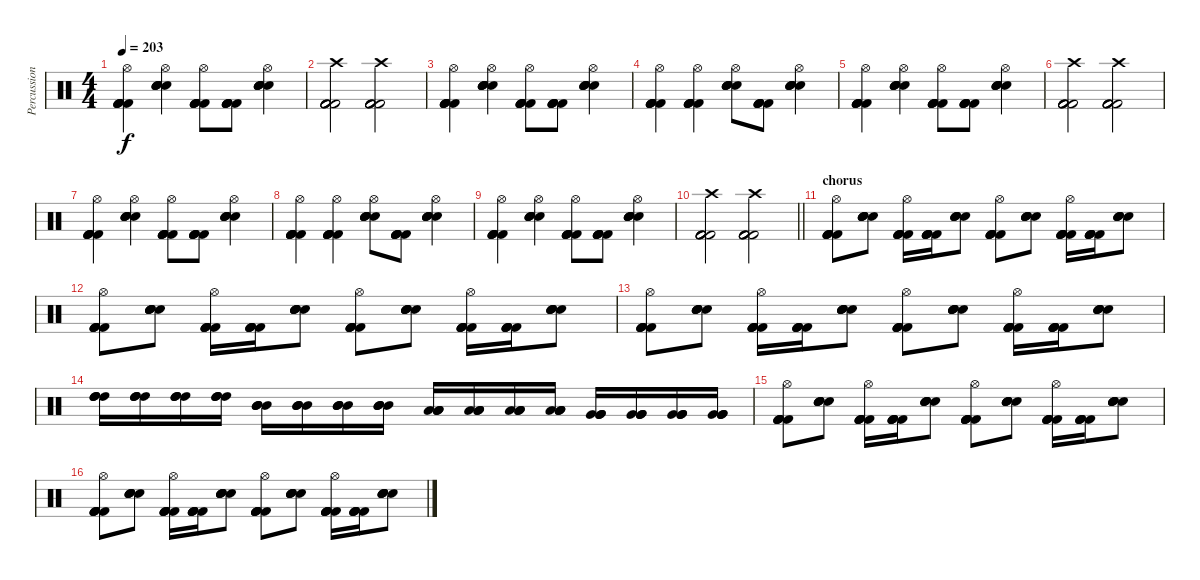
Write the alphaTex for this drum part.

\track ("Percussion" "Percussion") {instrument percussion}
\staff {score}
\articulation defaults
\ts (4 4)
\tempo 203
\clef neutral
\ks c
("Kick (hit) 2" "Kick (hit) 2" "Kick (hit) 2" "Kick (hit) 2" "Kick (hit) 2" "Hi-Hat (open)").4{dy f} ("Electric Snare (hit)" "Electric Snare (hit)" "Electric Snare (hit)" "Electric Snare (hit)" "Electric Snare (hit)" "Hi-Hat (open)").4 ("Kick (hit) 2" "Kick (hit) 2" "Kick (hit) 2" "Kick (hit) 2" "Kick (hit) 2" "Hi-Hat (open)").8 ("Kick (hit) 2" "Kick (hit) 2" "Kick (hit) 2" "Kick (hit) 2" "Kick (hit) 2").8 ("Electric Snare (hit)" "Electric Snare (hit)" "Electric Snare (hit)" "Electric Snare (hit)" "Electric Snare (hit)" "Hi-Hat (open)").4 |
("Kick (hit) 2" "Kick (hit) 2" "Kick (hit) 2" "Kick (hit) 2" "Kick (hit) 2" "Crash high (hit)").2 ("Kick (hit) 2" "Kick (hit) 2" "Kick (hit) 2" "Kick (hit) 2" "Kick (hit) 2" "Crash high (hit)").2 |
("Kick (hit) 2" "Kick (hit) 2" "Kick (hit) 2" "Kick (hit) 2" "Kick (hit) 2" "Hi-Hat (open)").4 ("Electric Snare (hit)" "Electric Snare (hit)" "Electric Snare (hit)" "Electric Snare (hit)" "Electric Snare (hit)" "Hi-Hat (open)").4 ("Kick (hit) 2" "Kick (hit) 2" "Kick (hit) 2" "Kick (hit) 2" "Kick (hit) 2" "Hi-Hat (open)").8 ("Kick (hit) 2" "Kick (hit) 2" "Kick (hit) 2" "Kick (hit) 2" "Kick (hit) 2").8 ("Electric Snare (hit)" "Electric Snare (hit)" "Electric Snare (hit)" "Electric Snare (hit)" "Electric Snare (hit)" "Hi-Hat (open)").4 |
("Kick (hit) 2" "Kick (hit) 2" "Kick (hit) 2" "Kick (hit) 2" "Kick (hit) 2" "Hi-Hat (open)").4 ("Kick (hit) 2" "Kick (hit) 2" "Kick (hit) 2" "Kick (hit) 2" "Kick (hit) 2" "Hi-Hat (open)").4 ("Electric Snare (hit)" "Electric Snare (hit)" "Electric Snare (hit)" "Electric Snare (hit)" "Electric Snare (hit)" "Hi-Hat (open)").8 ("Kick (hit) 2" "Kick (hit) 2" "Kick (hit) 2" "Kick (hit) 2" "Kick (hit) 2").8 ("Electric Snare (hit)" "Electric Snare (hit)" "Electric Snare (hit)" "Electric Snare (hit)" "Electric Snare (hit)" "Hi-Hat (open)").4 |
("Kick (hit) 2" "Kick (hit) 2" "Kick (hit) 2" "Kick (hit) 2" "Kick (hit) 2" "Hi-Hat (open)").4 ("Electric Snare (hit)" "Electric Snare (hit)" "Electric Snare (hit)" "Electric Snare (hit)" "Electric Snare (hit)" "Hi-Hat (open)").4 ("Kick (hit) 2" "Kick (hit) 2" "Kick (hit) 2" "Kick (hit) 2" "Kick (hit) 2" "Hi-Hat (open)").8 ("Kick (hit) 2" "Kick (hit) 2" "Kick (hit) 2" "Kick (hit) 2" "Kick (hit) 2").8 ("Electric Snare (hit)" "Electric Snare (hit)" "Electric Snare (hit)" "Electric Snare (hit)" "Electric Snare (hit)" "Hi-Hat (open)").4 |
("Kick (hit) 2" "Kick (hit) 2" "Kick (hit) 2" "Kick (hit) 2" "Kick (hit) 2" "Crash high (hit)").2 ("Kick (hit) 2" "Kick (hit) 2" "Kick (hit) 2" "Kick (hit) 2" "Kick (hit) 2" "Crash high (hit)").2 |
("Kick (hit) 2" "Kick (hit) 2" "Kick (hit) 2" "Kick (hit) 2" "Kick (hit) 2" "Hi-Hat (open)").4 ("Electric Snare (hit)" "Electric Snare (hit)" "Electric Snare (hit)" "Electric Snare (hit)" "Electric Snare (hit)" "Hi-Hat (open)").4 ("Kick (hit) 2" "Kick (hit) 2" "Kick (hit) 2" "Kick (hit) 2" "Kick (hit) 2" "Hi-Hat (open)").8 ("Kick (hit) 2" "Kick (hit) 2" "Kick (hit) 2" "Kick (hit) 2" "Kick (hit) 2").8 ("Electric Snare (hit)" "Electric Snare (hit)" "Electric Snare (hit)" "Electric Snare (hit)" "Electric Snare (hit)" "Hi-Hat (open)").4 |
("Kick (hit) 2" "Kick (hit) 2" "Kick (hit) 2" "Kick (hit) 2" "Kick (hit) 2" "Hi-Hat (open)").4 ("Kick (hit) 2" "Kick (hit) 2" "Kick (hit) 2" "Kick (hit) 2" "Kick (hit) 2" "Hi-Hat (open)").4 ("Electric Snare (hit)" "Electric Snare (hit)" "Electric Snare (hit)" "Electric Snare (hit)" "Electric Snare (hit)" "Hi-Hat (open)").8 ("Kick (hit) 2" "Kick (hit) 2" "Kick (hit) 2" "Kick (hit) 2" "Kick (hit) 2").8 ("Electric Snare (hit)" "Electric Snare (hit)" "Electric Snare (hit)" "Electric Snare (hit)" "Electric Snare (hit)" "Hi-Hat (open)").4 |
("Kick (hit) 2" "Kick (hit) 2" "Kick (hit) 2" "Kick (hit) 2" "Kick (hit) 2" "Hi-Hat (open)").4 ("Electric Snare (hit)" "Electric Snare (hit)" "Electric Snare (hit)" "Electric Snare (hit)" "Electric Snare (hit)" "Hi-Hat (open)").4 ("Kick (hit) 2" "Kick (hit) 2" "Kick (hit) 2" "Kick (hit) 2" "Kick (hit) 2" "Hi-Hat (open)").8 ("Kick (hit) 2" "Kick (hit) 2" "Kick (hit) 2" "Kick (hit) 2" "Kick (hit) 2").8 ("Electric Snare (hit)" "Electric Snare (hit)" "Electric Snare (hit)" "Electric Snare (hit)" "Electric Snare (hit)" "Hi-Hat (open)").4 |
\barLineRight lightlight
("Kick (hit) 2" "Kick (hit) 2" "Kick (hit) 2" "Kick (hit) 2" "Kick (hit) 2" "Crash high (hit)").2 ("Kick (hit) 2" "Kick (hit) 2" "Kick (hit) 2" "Kick (hit) 2" "Kick (hit) 2" "Crash high (hit)").2 |
\section ("" "chorus")
("Kick (hit) 2" "Kick (hit) 2" "Kick (hit) 2" "Kick (hit) 2" "Kick (hit) 2" "Hi-Hat (open)").8 ("Electric Snare (hit)" "Electric Snare (hit)" "Electric Snare (hit)" "Electric Snare (hit)" "Electric Snare (hit)").8 ("Kick (hit) 2" "Kick (hit) 2" "Kick (hit) 2" "Kick (hit) 2" "Kick (hit) 2" "Hi-Hat (open)").16 ("Kick (hit) 2" "Kick (hit) 2" "Kick (hit) 2" "Kick (hit) 2" "Kick (hit) 2").16 ("Electric Snare (hit)" "Electric Snare (hit)" "Electric Snare (hit)" "Electric Snare (hit)" "Electric Snare (hit)").8 ("Kick (hit) 2" "Kick (hit) 2" "Kick (hit) 2" "Kick (hit) 2" "Kick (hit) 2" "Hi-Hat (open)").8 ("Electric Snare (hit)" "Electric Snare (hit)" "Electric Snare (hit)" "Electric Snare (hit)" "Electric Snare (hit)").8 ("Kick (hit) 2" "Kick (hit) 2" "Kick (hit) 2" "Kick (hit) 2" "Kick (hit) 2" "Hi-Hat (open)").16 ("Kick (hit) 2" "Kick (hit) 2" "Kick (hit) 2" "Kick (hit) 2" "Kick (hit) 2").16 ("Electric Snare (hit)" "Electric Snare (hit)" "Electric Snare (hit)" "Electric Snare (hit)" "Electric Snare (hit)").8 |
("Kick (hit) 2" "Kick (hit) 2" "Kick (hit) 2" "Kick (hit) 2" "Kick (hit) 2" "Hi-Hat (open)").8 ("Electric Snare (hit)" "Electric Snare (hit)" "Electric Snare (hit)" "Electric Snare (hit)" "Electric Snare (hit)").8 ("Kick (hit) 2" "Kick (hit) 2" "Kick (hit) 2" "Kick (hit) 2" "Kick (hit) 2" "Hi-Hat (open)").16 ("Kick (hit) 2" "Kick (hit) 2" "Kick (hit) 2" "Kick (hit) 2" "Kick (hit) 2").16 ("Electric Snare (hit)" "Electric Snare (hit)" "Electric Snare (hit)" "Electric Snare (hit)" "Electric Snare (hit)").8 ("Kick (hit) 2" "Kick (hit) 2" "Kick (hit) 2" "Kick (hit) 2" "Kick (hit) 2" "Hi-Hat (open)").8 ("Electric Snare (hit)" "Electric Snare (hit)" "Electric Snare (hit)" "Electric Snare (hit)" "Electric Snare (hit)").8 ("Kick (hit) 2" "Kick (hit) 2" "Kick (hit) 2" "Kick (hit) 2" "Kick (hit) 2" "Hi-Hat (open)").16 ("Kick (hit) 2" "Kick (hit) 2" "Kick (hit) 2" "Kick (hit) 2" "Kick (hit) 2").16 ("Electric Snare (hit)" "Electric Snare (hit)" "Electric Snare (hit)" "Electric Snare (hit)" "Electric Snare (hit)").8 |
("Kick (hit) 2" "Kick (hit) 2" "Kick (hit) 2" "Kick (hit) 2" "Kick (hit) 2" "Hi-Hat (open)").8 ("Electric Snare (hit)" "Electric Snare (hit)" "Electric Snare (hit)" "Electric Snare (hit)" "Electric Snare (hit)").8 ("Kick (hit) 2" "Kick (hit) 2" "Kick (hit) 2" "Kick (hit) 2" "Kick (hit) 2" "Hi-Hat (open)").16 ("Kick (hit) 2" "Kick (hit) 2" "Kick (hit) 2" "Kick (hit) 2" "Kick (hit) 2").16 ("Electric Snare (hit)" "Electric Snare (hit)" "Electric Snare (hit)" "Electric Snare (hit)" "Electric Snare (hit)").8 ("Kick (hit) 2" "Kick (hit) 2" "Kick (hit) 2" "Kick (hit) 2" "Kick (hit) 2" "Hi-Hat (open)").8 ("Electric Snare (hit)" "Electric Snare (hit)" "Electric Snare (hit)" "Electric Snare (hit)" "Electric Snare (hit)").8 ("Kick (hit) 2" "Kick (hit) 2" "Kick (hit) 2" "Kick (hit) 2" "Kick (hit) 2" "Hi-Hat (open)").16 ("Kick (hit) 2" "Kick (hit) 2" "Kick (hit) 2" "Kick (hit) 2" "Kick (hit) 2").16 ("Electric Snare (hit)" "Electric Snare (hit)" "Electric Snare (hit)" "Electric Snare (hit)" "Electric Snare (hit)").8 |
("High Tom (hit)" "High Tom (hit)" "High Tom (hit)" "High Tom (hit)").16 ("High Tom (hit)" "High Tom (hit)" "High Tom (hit)" "High Tom (hit)").16 ("High Tom (hit)" "High Tom (hit)" "High Tom (hit)" "High Tom (hit)").16 ("High Tom (hit)" "High Tom (hit)" "High Tom (hit)" "High Tom (hit)").16 ("Mid Tom (hit)" "Mid Tom (hit)" "Mid Tom (hit)" "Mid Tom (hit)").16 ("Mid Tom (hit)" "Mid Tom (hit)" "Mid Tom (hit)" "Mid Tom (hit)").16 ("Mid Tom (hit)" "Mid Tom (hit)" "Mid Tom (hit)" "Mid Tom (hit)").16 ("Mid Tom (hit)" "Mid Tom (hit)" "Mid Tom (hit)" "Mid Tom (hit)").16 ("Low Tom (hit)" "Low Tom (hit)" "Low Tom (hit)" "Low Tom (hit)").16 ("Low Tom (hit)" "Low Tom (hit)" "Low Tom (hit)" "Low Tom (hit)").16 ("Low Tom (hit)" "Low Tom (hit)" "Low Tom (hit)" "Low Tom (hit)").16 ("Low Tom (hit)" "Low Tom (hit)" "Low Tom (hit)" "Low Tom (hit)").16 ("Very Low Tom (hit)" "Very Low Tom (hit)" "Very Low Tom (hit)" "Very Low Tom (hit)").16 ("Very Low Tom (hit)" "Very Low Tom (hit)" "Very Low Tom (hit)" "Very Low Tom (hit)").16 ("Very Low Tom (hit)" "Very Low Tom (hit)" "Very Low Tom (hit)" "Very Low Tom (hit)").16 ("Very Low Tom (hit)" "Very Low Tom (hit)" "Very Low Tom (hit)" "Very Low Tom (hit)").16 |
("Kick (hit) 2" "Kick (hit) 2" "Kick (hit) 2" "Kick (hit) 2" "Kick (hit) 2" "Hi-Hat (open)").8 ("Electric Snare (hit)" "Electric Snare (hit)" "Electric Snare (hit)" "Electric Snare (hit)" "Electric Snare (hit)").8 ("Kick (hit) 2" "Kick (hit) 2" "Kick (hit) 2" "Kick (hit) 2" "Kick (hit) 2" "Hi-Hat (open)").16 ("Kick (hit) 2" "Kick (hit) 2" "Kick (hit) 2" "Kick (hit) 2" "Kick (hit) 2").16 ("Electric Snare (hit)" "Electric Snare (hit)" "Electric Snare (hit)" "Electric Snare (hit)" "Electric Snare (hit)").8 ("Kick (hit) 2" "Kick (hit) 2" "Kick (hit) 2" "Kick (hit) 2" "Kick (hit) 2" "Hi-Hat (open)").8 ("Electric Snare (hit)" "Electric Snare (hit)" "Electric Snare (hit)" "Electric Snare (hit)" "Electric Snare (hit)").8 ("Kick (hit) 2" "Kick (hit) 2" "Kick (hit) 2" "Kick (hit) 2" "Kick (hit) 2" "Hi-Hat (open)").16 ("Kick (hit) 2" "Kick (hit) 2" "Kick (hit) 2" "Kick (hit) 2" "Kick (hit) 2").16 ("Electric Snare (hit)" "Electric Snare (hit)" "Electric Snare (hit)" "Electric Snare (hit)" "Electric Snare (hit)").8 |
("Kick (hit) 2" "Kick (hit) 2" "Kick (hit) 2" "Kick (hit) 2" "Kick (hit) 2" "Hi-Hat (open)").8 ("Electric Snare (hit)" "Electric Snare (hit)" "Electric Snare (hit)" "Electric Snare (hit)" "Electric Snare (hit)").8 ("Kick (hit) 2" "Kick (hit) 2" "Kick (hit) 2" "Kick (hit) 2" "Kick (hit) 2" "Hi-Hat (open)").16 ("Kick (hit) 2" "Kick (hit) 2" "Kick (hit) 2" "Kick (hit) 2" "Kick (hit) 2").16 ("Electric Snare (hit)" "Electric Snare (hit)" "Electric Snare (hit)" "Electric Snare (hit)" "Electric Snare (hit)").8 ("Kick (hit) 2" "Kick (hit) 2" "Kick (hit) 2" "Kick (hit) 2" "Kick (hit) 2" "Hi-Hat (open)").8 ("Electric Snare (hit)" "Electric Snare (hit)" "Electric Snare (hit)" "Electric Snare (hit)" "Electric Snare (hit)").8 ("Kick (hit) 2" "Kick (hit) 2" "Kick (hit) 2" "Kick (hit) 2" "Kick (hit) 2" "Hi-Hat (open)").16 ("Kick (hit) 2" "Kick (hit) 2" "Kick (hit) 2" "Kick (hit) 2" "Kick (hit) 2").16 ("Electric Snare (hit)" "Electric Snare (hit)" "Electric Snare (hit)" "Electric Snare (hit)" "Electric Snare (hit)").8
